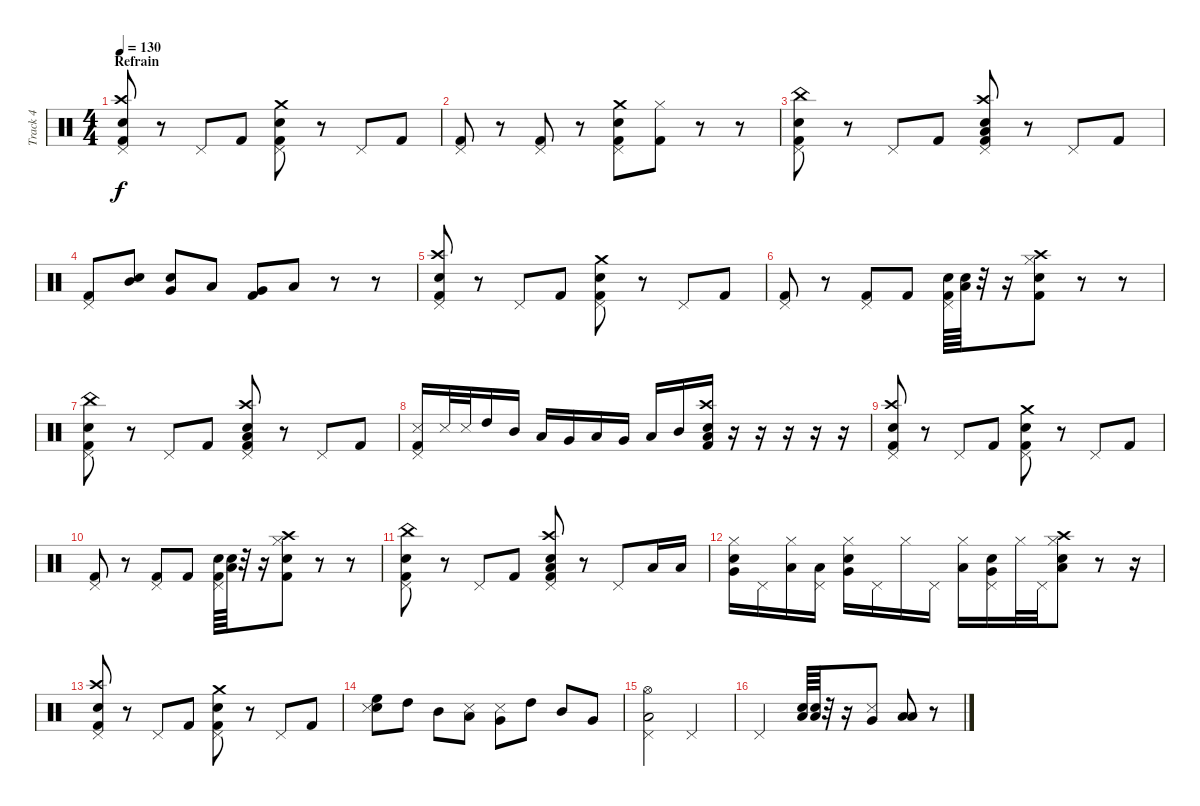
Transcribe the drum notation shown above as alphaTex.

\track ("Track 4" "Track 4") {instrument percussion}
\staff {score}
\articulation defaults
\ts (4 4)
\section ("" "Refrain")
\tempo 130
\clef neutral
\ks c
("Kick (hit) 2" "Pedal Hi-Hat (hit)" "Crash high (hit)" "Snare (hit) 2").8{dy f} r.8 "Pedal Hi-Hat (hit)".8 "Kick (hit) 2".8 ("Crash medium (hit)" "Snare (hit) 2" "Kick (hit) 2" "Pedal Hi-Hat (hit)").8 r.8 "Pedal Hi-Hat (hit)".8 "Kick (hit) 2".8 |
("Kick (hit) 2" "Pedal Hi-Hat (hit)").8 r.8 ("Pedal Hi-Hat (hit)" "Kick (hit) 2").8 r.8 ("Pedal Hi-Hat (hit)" "Kick (hit) 2" "Snare (hit) 2" "Crash medium (hit)").8 ("Kick (hit) 2" "Hi-Hat (closed)").8 r.8 r.8 |
("Kick (hit) 2" "Pedal Hi-Hat (hit)" "China (hit)" "Snare (hit) 2").8 r.8 "Pedal Hi-Hat (hit)".8 "Kick (hit) 2".8 ("Low Tom (hit)" "Snare (hit) 2" "Kick (hit) 2" "Pedal Hi-Hat (hit)" "Crash high (hit)").8 r.8 "Pedal Hi-Hat (hit)".8 "Kick (hit) 2".8 |
("Kick (hit) 2" "Pedal Hi-Hat (hit)").8 ("Electric Snare (hit)" "Mid Tom (hit)").8 ("Electric Snare (hit)" "Very Low Tom (hit)").8 "Low Tom (hit)".8 ("Kick (hit) 2" "Very Low Tom (hit)").8 "Low Tom (hit)".8 r.8 r.8 |
("Kick (hit) 2" "Pedal Hi-Hat (hit)" "Crash high (hit)" "Snare (hit) 2").8 r.8 "Pedal Hi-Hat (hit)".8 "Kick (hit) 2".8 ("Crash medium (hit)" "Snare (hit) 2" "Kick (hit) 2" "Pedal Hi-Hat (hit)").8 r.8 "Pedal Hi-Hat (hit)".8 "Kick (hit) 2".8 |
("Kick (hit) 2" "Pedal Hi-Hat (hit)").8 r.8 ("Pedal Hi-Hat (hit)" "Kick (hit) 2").8 "Kick (hit) 2".8 ("Pedal Hi-Hat (hit)" "Kick (hit) 2" "Electric Snare (hit)").64 ("Electric Snare (hit)" "Low Tom (hit)").64 r.32 r.16 ("Kick (hit) 2" "Hi-Hat (closed)" "Snare (hit) 2" "Crash high (hit)").8 r.8 r.8 |
("Kick (hit) 2" "Pedal Hi-Hat (hit)" "China (hit)" "Snare (hit) 2").8 r.8 "Pedal Hi-Hat (hit)".8 "Kick (hit) 2".8 ("Low Tom (hit)" "Snare (hit) 2" "Kick (hit) 2" "Pedal Hi-Hat (hit)" "Crash high (hit)").8 r.8 "Pedal Hi-Hat (hit)".8 "Kick (hit) 2".8 |
("Kick (hit) 2" "Pedal Hi-Hat (hit)" "Snare (side stick) 3").16 "Metronome (hit)".32 "Metronome (hit)".32 "High Tom (hit)".16 "Mid Tom (hit)".16 "Low Tom (hit)".16 "Very Low Tom (hit)".16 "Low Floor Tom (hit)".16 "Very Low Tom (hit)".16 "Low Tom (hit)".16 "Mid Tom (hit)".16 ("Kick (hit) 2" "Low Tom (hit)" "Snare (hit) 2" "Crash high (hit)").16 r.16 r.16 r.16 r.16 r.16 |
("Kick (hit) 2" "Pedal Hi-Hat (hit)" "Crash high (hit)" "Snare (hit) 2").8 r.8 "Pedal Hi-Hat (hit)".8 "Kick (hit) 2".8 ("Crash medium (hit)" "Snare (hit) 2" "Kick (hit) 2" "Pedal Hi-Hat (hit)").8 r.8 "Pedal Hi-Hat (hit)".8 "Kick (hit) 2".8 |
("Kick (hit) 2" "Pedal Hi-Hat (hit)").8 r.8 ("Pedal Hi-Hat (hit)" "Kick (hit) 2").8 "Kick (hit) 2".8 ("Pedal Hi-Hat (hit)" "Kick (hit) 2" "Electric Snare (hit)").64 ("Electric Snare (hit)" "Low Tom (hit)").64 r.32 r.16 ("Kick (hit) 2" "Hi-Hat (closed)" "Snare (hit) 2" "Crash high (hit)").8 r.8 r.8 |
("Kick (hit) 2" "Pedal Hi-Hat (hit)" "China (hit)" "Snare (hit) 2").8 r.8 "Pedal Hi-Hat (hit)".8 "Kick (hit) 2".8 ("Low Tom (hit)" "Snare (hit) 2" "Kick (hit) 2" "Pedal Hi-Hat (hit)" "Crash high (hit)").8 r.8 "Pedal Hi-Hat (hit)".8 "Low Floor Tom (hit)".16 "Low Floor Tom (hit)".16 |
("Electric Snare (hit)" "Very Low Tom (hit)" "Hi-Hat (closed)").16 "Pedal Hi-Hat (hit)".16 ("Low Floor Tom (hit)" "Hi-Hat (closed)").16 ("Low Floor Tom (hit)" "Pedal Hi-Hat (hit)").16 ("Electric Snare (hit)" "Very Low Tom (hit)" "Hi-Hat (closed)").16 "Pedal Hi-Hat (hit)".16 "Hi-Hat (closed)".16 "Pedal Hi-Hat (hit)".16 ("Low Floor Tom (hit)" "Hi-Hat (closed)").16 ("Electric Snare (hit)" "Very Low Tom (hit)" "Pedal Hi-Hat (hit)").16 "Hi-Hat (closed)".32 "Pedal Hi-Hat (hit)".32 ("Low Tom (hit)" "Snare (hit) 2" "Crash high (hit)" "Hi-Hat (closed)").8 r.8 r.16 |
("Kick (hit) 2" "Pedal Hi-Hat (hit)" "Crash high (hit)" "Snare (hit) 2").8 r.8 "Pedal Hi-Hat (hit)".8 "Kick (hit) 2".8 ("Crash medium (hit)" "Snare (hit) 2" "Kick (hit) 2" "Pedal Hi-Hat (hit)").8 r.8 "Pedal Hi-Hat (hit)".8 "Kick (hit) 2".8 |
("High Floor Tom (hit)" "Electric Snare (hit)" "Snare (side stick) 3").8 "High Tom (hit)".8 "Mid Tom (hit)".8 ("Low Tom (hit)" "Snare (side stick) 3").8 ("Very Low Tom (hit)" "Snare (side stick) 3").8 "High Tom (hit)".8 "Mid Tom (hit)".8 "Very Low Tom (hit)".8 |
("Low Tom (hit)" "Hi-Hat (open)" "Pedal Hi-Hat (hit)").2 "Pedal Hi-Hat (hit)".2 |
"Pedal Hi-Hat (hit)".2 ("Low Tom (hit)" "Electric Snare (hit)").64 ("Low Tom (hit)" "Electric Snare (hit)").64 r.32 r.16 ("Very Low Tom (hit)" "Snare (side stick) 3").8 ("Low Floor Tom (hit)" "Low Tom (hit)").8 r.8
